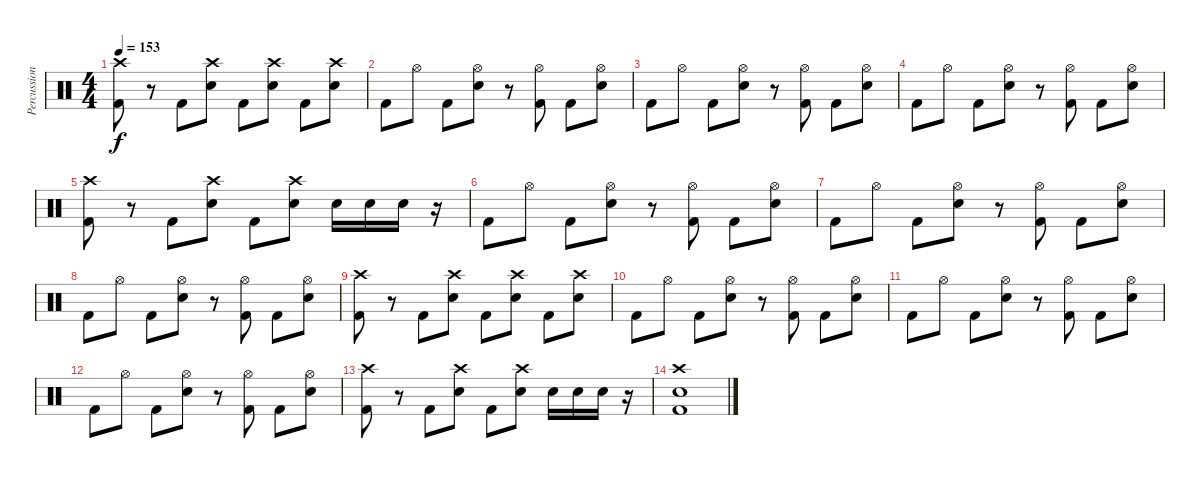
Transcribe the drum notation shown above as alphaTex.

\track ("Percussion" "Percussion") {instrument percussion}
\staff {score}
\articulation defaults
\ts (4 4)
\tempo 153
\clef neutral
\ks c
("Crash high (hit)" "Kick (hit) 2").8{dy f} r.8 "Kick (hit) 2".8 ("Crash high (hit)" "Electric Snare (hit)").8 "Kick (hit) 2".8 ("Crash high (hit)" "Electric Snare (hit)").8 "Kick (hit) 2".8 ("Crash high (hit)" "Electric Snare (hit)").8 |
"Kick (hit) 2".8 "Hi-Hat (open)".8 "Kick (hit) 2".8 ("Hi-Hat (open)" "Electric Snare (hit)").8 r.8 ("Hi-Hat (open)" "Kick (hit) 2").8 "Kick (hit) 2".8 ("Hi-Hat (open)" "Electric Snare (hit)").8 |
"Kick (hit) 2".8 "Hi-Hat (open)".8 "Kick (hit) 2".8 ("Hi-Hat (open)" "Electric Snare (hit)").8 r.8 ("Hi-Hat (open)" "Kick (hit) 2").8 "Kick (hit) 2".8 ("Hi-Hat (open)" "Electric Snare (hit)").8 |
"Kick (hit) 2".8 "Hi-Hat (open)".8 "Kick (hit) 2".8 ("Hi-Hat (open)" "Electric Snare (hit)").8 r.8 ("Hi-Hat (open)" "Kick (hit) 2").8 "Kick (hit) 2".8 ("Hi-Hat (open)" "Electric Snare (hit)").8 |
("Crash high (hit)" "Kick (hit) 2").8 r.8 "Kick (hit) 2".8 ("Crash high (hit)" "Electric Snare (hit)").8 "Kick (hit) 2".8 ("Crash high (hit)" "Electric Snare (hit)").8 "Electric Snare (hit)".16 "Electric Snare (hit)".16 "Electric Snare (hit)".16 r.16 |
"Kick (hit) 2".8 "Hi-Hat (open)".8 "Kick (hit) 2".8 ("Hi-Hat (open)" "Electric Snare (hit)").8 r.8 ("Hi-Hat (open)" "Kick (hit) 2").8 "Kick (hit) 2".8 ("Hi-Hat (open)" "Electric Snare (hit)").8 |
"Kick (hit) 2".8 "Hi-Hat (open)".8 "Kick (hit) 2".8 ("Hi-Hat (open)" "Electric Snare (hit)").8 r.8 ("Hi-Hat (open)" "Kick (hit) 2").8 "Kick (hit) 2".8 ("Hi-Hat (open)" "Electric Snare (hit)").8 |
"Kick (hit) 2".8 "Hi-Hat (open)".8 "Kick (hit) 2".8 ("Hi-Hat (open)" "Electric Snare (hit)").8 r.8 ("Hi-Hat (open)" "Kick (hit) 2").8 "Kick (hit) 2".8 ("Hi-Hat (open)" "Electric Snare (hit)").8 |
("Crash high (hit)" "Kick (hit) 2").8 r.8 "Kick (hit) 2".8 ("Crash high (hit)" "Electric Snare (hit)").8 "Kick (hit) 2".8 ("Crash high (hit)" "Electric Snare (hit)").8 "Kick (hit) 2".8 ("Crash high (hit)" "Electric Snare (hit)").8 |
"Kick (hit) 2".8 "Hi-Hat (open)".8 "Kick (hit) 2".8 ("Hi-Hat (open)" "Electric Snare (hit)").8 r.8 ("Hi-Hat (open)" "Kick (hit) 2").8 "Kick (hit) 2".8 ("Hi-Hat (open)" "Electric Snare (hit)").8 |
"Kick (hit) 2".8 "Hi-Hat (open)".8 "Kick (hit) 2".8 ("Hi-Hat (open)" "Electric Snare (hit)").8 r.8 ("Hi-Hat (open)" "Kick (hit) 2").8 "Kick (hit) 2".8 ("Hi-Hat (open)" "Electric Snare (hit)").8 |
"Kick (hit) 2".8 "Hi-Hat (open)".8 "Kick (hit) 2".8 ("Hi-Hat (open)" "Electric Snare (hit)").8 r.8 ("Hi-Hat (open)" "Kick (hit) 2").8 "Kick (hit) 2".8 ("Hi-Hat (open)" "Electric Snare (hit)").8 |
("Crash high (hit)" "Kick (hit) 2").8 r.8 "Kick (hit) 2".8 ("Crash high (hit)" "Electric Snare (hit)").8 "Kick (hit) 2".8 ("Crash high (hit)" "Electric Snare (hit)").8 "Electric Snare (hit)".16 "Electric Snare (hit)".16 "Electric Snare (hit)".16 r.16 |
("Crash high (hit)" "Electric Snare (hit)" "Kick (hit) 2").1
